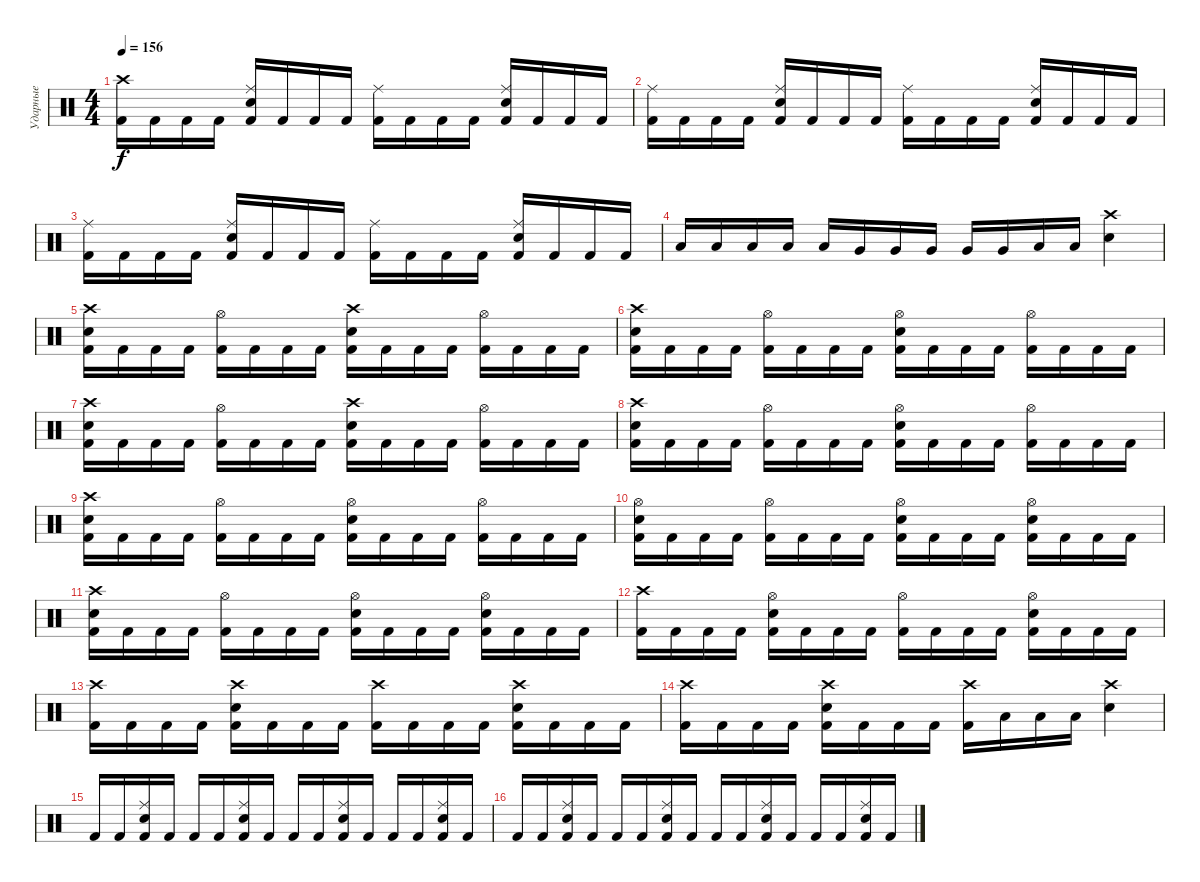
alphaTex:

\track ("Ударные" "Ударные") {instrument percussion}
\staff {score}
\articulation defaults
\ts (4 4)
\tempo 156
\clef neutral
\ks c
("Crash high (hit)" "Kick (hit) 2").16{dy f} "Kick (hit) 2".16 "Kick (hit) 2".16 "Kick (hit) 2".16 ("Ride (middle)" "Electric Snare (hit)" "Kick (hit) 2").16 "Kick (hit) 2".16 "Kick (hit) 2".16 "Kick (hit) 2".16 ("Ride (middle)" "Kick (hit) 2").16 "Kick (hit) 2".16 "Kick (hit) 2".16 "Kick (hit) 2".16 ("Ride (middle)" "Electric Snare (hit)" "Kick (hit) 2").16 "Kick (hit) 2".16 "Kick (hit) 2".16 "Kick (hit) 2".16 |
("Ride (middle)" "Kick (hit) 2").16 "Kick (hit) 2".16 "Kick (hit) 2".16 "Kick (hit) 2".16 ("Ride (middle)" "Electric Snare (hit)" "Kick (hit) 2").16 "Kick (hit) 2".16 "Kick (hit) 2".16 "Kick (hit) 2".16 ("Ride (middle)" "Kick (hit) 2").16 "Kick (hit) 2".16 "Kick (hit) 2".16 "Kick (hit) 2".16 ("Ride (middle)" "Electric Snare (hit)" "Kick (hit) 2").16 "Kick (hit) 2".16 "Kick (hit) 2".16 "Kick (hit) 2".16 |
("Ride (middle)" "Kick (hit) 2").16 "Kick (hit) 2".16 "Kick (hit) 2".16 "Kick (hit) 2".16 ("Ride (middle)" "Electric Snare (hit)" "Kick (hit) 2").16 "Kick (hit) 2".16 "Kick (hit) 2".16 "Kick (hit) 2".16 ("Ride (middle)" "Kick (hit) 2").16 "Kick (hit) 2".16 "Kick (hit) 2".16 "Kick (hit) 2".16 ("Ride (middle)" "Electric Snare (hit)" "Kick (hit) 2").16 "Kick (hit) 2".16 "Kick (hit) 2".16 "Kick (hit) 2".16 |
"Low Tom (hit)".16 "Low Tom (hit)".16 "Low Tom (hit)".16 "Low Tom (hit)".16 "Low Tom (hit)".16 "Very Low Tom (hit)".16 "Very Low Tom (hit)".16 "Very Low Tom (hit)".16 "Very Low Tom (hit)".16 "Very Low Tom (hit)".16 "Low Floor Tom (hit)".16 "Low Floor Tom (hit)".16 ("Crash high (hit)" "Electric Snare (hit)").4 |
("Crash high (hit)" "Electric Snare (hit)" "Kick (hit) 2").16 "Kick (hit) 2".16 "Kick (hit) 2".16 "Kick (hit) 2".16 ("Hi-Hat (open)" "Kick (hit) 2").16 "Kick (hit) 2".16 "Kick (hit) 2".16 "Kick (hit) 2".16 ("Crash high (hit)" "Electric Snare (hit)" "Kick (hit) 2").16 "Kick (hit) 2".16 "Kick (hit) 2".16 "Kick (hit) 2".16 ("Hi-Hat (open)" "Kick (hit) 2").16 "Kick (hit) 2".16 "Kick (hit) 2".16 "Kick (hit) 2".16 |
("Crash high (hit)" "Electric Snare (hit)" "Kick (hit) 2").16 "Kick (hit) 2".16 "Kick (hit) 2".16 "Kick (hit) 2".16 ("Hi-Hat (open)" "Kick (hit) 2").16 "Kick (hit) 2".16 "Kick (hit) 2".16 "Kick (hit) 2".16 ("Hi-Hat (open)" "Electric Snare (hit)" "Kick (hit) 2").16 "Kick (hit) 2".16 "Kick (hit) 2".16 "Kick (hit) 2".16 ("Hi-Hat (open)" "Kick (hit) 2").16 "Kick (hit) 2".16 "Kick (hit) 2".16 "Kick (hit) 2".16 |
("Crash high (hit)" "Electric Snare (hit)" "Kick (hit) 2").16 "Kick (hit) 2".16 "Kick (hit) 2".16 "Kick (hit) 2".16 ("Hi-Hat (open)" "Kick (hit) 2").16 "Kick (hit) 2".16 "Kick (hit) 2".16 "Kick (hit) 2".16 ("Crash high (hit)" "Electric Snare (hit)" "Kick (hit) 2").16 "Kick (hit) 2".16 "Kick (hit) 2".16 "Kick (hit) 2".16 ("Hi-Hat (open)" "Kick (hit) 2").16 "Kick (hit) 2".16 "Kick (hit) 2".16 "Kick (hit) 2".16 |
("Crash high (hit)" "Electric Snare (hit)" "Kick (hit) 2").16 "Kick (hit) 2".16 "Kick (hit) 2".16 "Kick (hit) 2".16 ("Hi-Hat (open)" "Kick (hit) 2").16 "Kick (hit) 2".16 "Kick (hit) 2".16 "Kick (hit) 2".16 ("Hi-Hat (open)" "Electric Snare (hit)" "Kick (hit) 2").16 "Kick (hit) 2".16 "Kick (hit) 2".16 "Kick (hit) 2".16 ("Hi-Hat (open)" "Kick (hit) 2").16 "Kick (hit) 2".16 "Kick (hit) 2".16 "Kick (hit) 2".16 |
("Crash high (hit)" "Electric Snare (hit)" "Kick (hit) 2").16 "Kick (hit) 2".16 "Kick (hit) 2".16 "Kick (hit) 2".16 ("Hi-Hat (open)" "Kick (hit) 2").16 "Kick (hit) 2".16 "Kick (hit) 2".16 "Kick (hit) 2".16 ("Hi-Hat (open)" "Electric Snare (hit)" "Kick (hit) 2").16 "Kick (hit) 2".16 "Kick (hit) 2".16 "Kick (hit) 2".16 ("Hi-Hat (open)" "Kick (hit) 2").16 "Kick (hit) 2".16 "Kick (hit) 2".16 "Kick (hit) 2".16 |
("Hi-Hat (open)" "Electric Snare (hit)" "Kick (hit) 2").16 "Kick (hit) 2".16 "Kick (hit) 2".16 "Kick (hit) 2".16 ("Hi-Hat (open)" "Kick (hit) 2").16 "Kick (hit) 2".16 "Kick (hit) 2".16 "Kick (hit) 2".16 ("Hi-Hat (open)" "Electric Snare (hit)" "Kick (hit) 2").16 "Kick (hit) 2".16 "Kick (hit) 2".16 "Kick (hit) 2".16 ("Hi-Hat (open)" "Electric Snare (hit)" "Kick (hit) 2").16 "Kick (hit) 2".16 "Kick (hit) 2".16 "Kick (hit) 2".16 |
("Crash high (hit)" "Electric Snare (hit)" "Kick (hit) 2").16 "Kick (hit) 2".16 "Kick (hit) 2".16 "Kick (hit) 2".16 ("Hi-Hat (open)" "Kick (hit) 2").16 "Kick (hit) 2".16 "Kick (hit) 2".16 "Kick (hit) 2".16 ("Hi-Hat (open)" "Electric Snare (hit)" "Kick (hit) 2").16 "Kick (hit) 2".16 "Kick (hit) 2".16 "Kick (hit) 2".16 ("Hi-Hat (open)" "Electric Snare (hit)" "Kick (hit) 2").16 "Kick (hit) 2".16 "Kick (hit) 2".16 "Kick (hit) 2".16 |
("Crash high (hit)" "Kick (hit) 2").16 "Kick (hit) 2".16 "Kick (hit) 2".16 "Kick (hit) 2".16 ("Hi-Hat (open)" "Electric Snare (hit)" "Kick (hit) 2").16 "Kick (hit) 2".16 "Kick (hit) 2".16 "Kick (hit) 2".16 ("Hi-Hat (open)" "Kick (hit) 2").16 "Kick (hit) 2".16 "Kick (hit) 2".16 "Kick (hit) 2".16 ("Hi-Hat (open)" "Electric Snare (hit)" "Kick (hit) 2").16 "Kick (hit) 2".16 "Kick (hit) 2".16 "Kick (hit) 2".16 |
("Crash high (hit)" "Kick (hit) 2").16 "Kick (hit) 2".16 "Kick (hit) 2".16 "Kick (hit) 2".16 ("Crash high (hit)" "Electric Snare (hit)" "Kick (hit) 2").16 "Kick (hit) 2".16 "Kick (hit) 2".16 "Kick (hit) 2".16 ("Crash high (hit)" "Kick (hit) 2").16 "Kick (hit) 2".16 "Kick (hit) 2".16 "Kick (hit) 2".16 ("Crash high (hit)" "Electric Snare (hit)" "Kick (hit) 2").16 "Kick (hit) 2".16 "Kick (hit) 2".16 "Kick (hit) 2".16 |
("Crash high (hit)" "Kick (hit) 2").16 "Kick (hit) 2".16 "Kick (hit) 2".16 "Kick (hit) 2".16 ("Crash high (hit)" "Electric Snare (hit)" "Kick (hit) 2").16 "Kick (hit) 2".16 "Kick (hit) 2".16 "Kick (hit) 2".16 ("Crash high (hit)" "Kick (hit) 2").16 "Low Tom (hit)".16 "Low Tom (hit)".16 "Low Tom (hit)".16 ("Crash high (hit)" "Electric Snare (hit)").4 |
"Kick (hit) 2".16 "Kick (hit) 2".16 ("Ride (middle)" "Electric Snare (hit)" "Kick (hit) 2").16 "Kick (hit) 2".16 "Kick (hit) 2".16 "Kick (hit) 2".16 ("Ride (middle)" "Electric Snare (hit)" "Kick (hit) 2").16 "Kick (hit) 2".16 "Kick (hit) 2".16 "Kick (hit) 2".16 ("Ride (middle)" "Electric Snare (hit)" "Kick (hit) 2").16 "Kick (hit) 2".16 "Kick (hit) 2".16 "Kick (hit) 2".16 ("Ride (middle)" "Electric Snare (hit)" "Kick (hit) 2").16 "Kick (hit) 2".16 |
"Kick (hit) 2".16 "Kick (hit) 2".16 ("Ride (middle)" "Electric Snare (hit)" "Kick (hit) 2").16 "Kick (hit) 2".16 "Kick (hit) 2".16 "Kick (hit) 2".16 ("Ride (middle)" "Electric Snare (hit)" "Kick (hit) 2").16 "Kick (hit) 2".16 "Kick (hit) 2".16 "Kick (hit) 2".16 ("Ride (middle)" "Electric Snare (hit)" "Kick (hit) 2").16 "Kick (hit) 2".16 "Kick (hit) 2".16 "Kick (hit) 2".16 ("Ride (middle)" "Electric Snare (hit)" "Kick (hit) 2").16 "Kick (hit) 2".16
